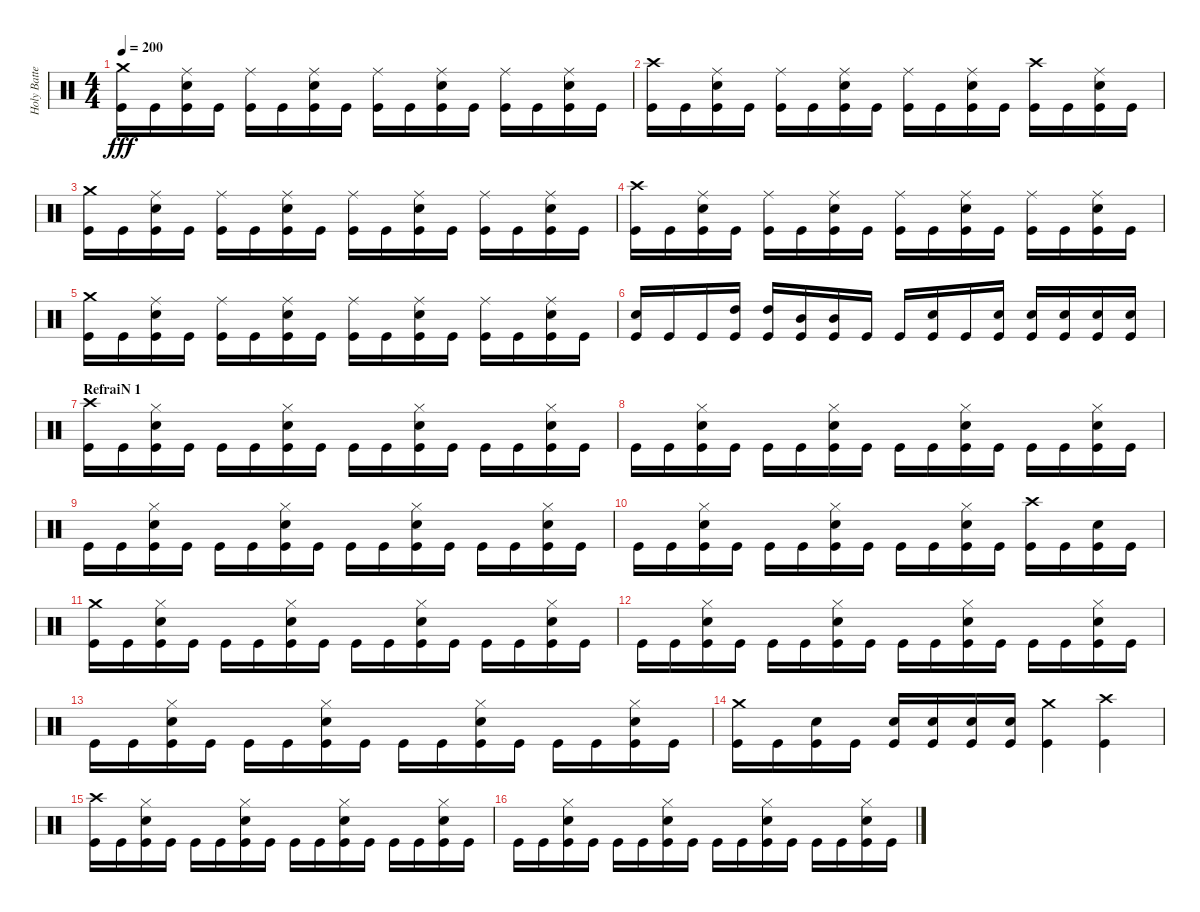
\track ("Holy Batteur" "Holy Batte") {instrument percussion}
\staff {score}
\articulation defaults
\ts (4 4)
\tempo 200
\clef neutral
\ks c
("Crash medium (hit)" "Kick (hit)").16{dy fff} "Kick (hit)".16 ("Ride (middle)" "Electric Snare (hit)" "Kick (hit)").16 "Kick (hit)".16 ("Ride (middle)" "Kick (hit)").16 "Kick (hit)".16 ("Ride (middle)" "Electric Snare (hit)" "Kick (hit)").16 "Kick (hit)".16 ("Ride (middle)" "Kick (hit)").16 "Kick (hit)".16 ("Ride (middle)" "Electric Snare (hit)" "Kick (hit)").16 "Kick (hit)".16 ("Ride (middle)" "Kick (hit)").16 "Kick (hit)".16 ("Ride (middle)" "Electric Snare (hit)" "Kick (hit)").16 "Kick (hit)".16 |
("Crash high (hit)" "Kick (hit)").16 "Kick (hit)".16 ("Ride (middle)" "Electric Snare (hit)" "Kick (hit)").16 "Kick (hit)".16 ("Ride (middle)" "Kick (hit)").16 "Kick (hit)".16 ("Ride (middle)" "Electric Snare (hit)" "Kick (hit)").16 "Kick (hit)".16 ("Ride (middle)" "Kick (hit)").16 "Kick (hit)".16 ("Ride (middle)" "Electric Snare (hit)" "Kick (hit)").16 "Kick (hit)".16 ("Crash high (hit)" "Kick (hit)").16 "Kick (hit)".16 ("Ride (middle)" "Electric Snare (hit)" "Kick (hit)").16 "Kick (hit)".16 |
("Crash medium (hit)" "Kick (hit)").16 "Kick (hit)".16 ("Ride (middle)" "Electric Snare (hit)" "Kick (hit)").16 "Kick (hit)".16 ("Ride (middle)" "Kick (hit)").16 "Kick (hit)".16 ("Ride (middle)" "Electric Snare (hit)" "Kick (hit)").16 "Kick (hit)".16 ("Ride (middle)" "Kick (hit)").16 "Kick (hit)".16 ("Ride (middle)" "Electric Snare (hit)" "Kick (hit)").16 "Kick (hit)".16 ("Ride (middle)" "Kick (hit)").16 "Kick (hit)".16 ("Ride (middle)" "Electric Snare (hit)" "Kick (hit)").16 "Kick (hit)".16 |
("Crash high (hit)" "Kick (hit)").16 "Kick (hit)".16 ("Ride (middle)" "Electric Snare (hit)" "Kick (hit)").16 "Kick (hit)".16 ("Ride (middle)" "Kick (hit)").16 "Kick (hit)".16 ("Ride (middle)" "Electric Snare (hit)" "Kick (hit)").16 "Kick (hit)".16 ("Ride (middle)" "Kick (hit)").16 "Kick (hit)".16 ("Ride (middle)" "Electric Snare (hit)" "Kick (hit)").16 "Kick (hit)".16 ("Ride (middle)" "Kick (hit)").16 "Kick (hit)".16 ("Ride (middle)" "Electric Snare (hit)" "Kick (hit)").16 "Kick (hit)".16 |
("Crash medium (hit)" "Kick (hit)").16 "Kick (hit)".16 ("Ride (middle)" "Electric Snare (hit)" "Kick (hit)").16 "Kick (hit)".16 ("Ride (middle)" "Kick (hit)").16 "Kick (hit)".16 ("Ride (middle)" "Electric Snare (hit)" "Kick (hit)").16 "Kick (hit)".16 ("Ride (middle)" "Kick (hit)").16 "Kick (hit)".16 ("Ride (middle)" "Electric Snare (hit)" "Kick (hit)").16 "Kick (hit)".16 ("Ride (middle)" "Kick (hit)").16 "Kick (hit)".16 ("Ride (middle)" "Electric Snare (hit)" "Kick (hit)").16 "Kick (hit)".16 |
("Electric Snare (hit)" "Kick (hit)").16 "Kick (hit)".16 "Kick (hit)".16 ("High Tom (hit)" "Kick (hit)").16 ("High Tom (hit)" "Kick (hit)").16 ("Mid Tom (hit)" "Kick (hit)").16 ("Mid Tom (hit)" "Kick (hit)").16 "Kick (hit)".16 "Kick (hit)".16 ("Electric Snare (hit)" "Kick (hit)").16 "Kick (hit)".16 ("Electric Snare (hit)" "Kick (hit)").16 ("Electric Snare (hit)" "Kick (hit)").16 ("Electric Snare (hit)" "Kick (hit)").16 ("Electric Snare (hit)" "Kick (hit)").16 ("Electric Snare (hit)" "Kick (hit)").16 |
\section ("" "RefraiN 1")
("Crash high (hit)" "Kick (hit)").16 "Kick (hit)".16 ("Hi-Hat (closed)" "Electric Snare (hit)" "Kick (hit)").16 "Kick (hit)".16 "Kick (hit)".16 "Kick (hit)".16 ("Hi-Hat (closed)" "Electric Snare (hit)" "Kick (hit)").16 "Kick (hit)".16 "Kick (hit)".16 "Kick (hit)".16 ("Hi-Hat (closed)" "Electric Snare (hit)" "Kick (hit)").16 "Kick (hit)".16 "Kick (hit)".16 "Kick (hit)".16 ("Hi-Hat (closed)" "Electric Snare (hit)" "Kick (hit)").16 "Kick (hit)".16 |
"Kick (hit)".16 "Kick (hit)".16 ("Hi-Hat (closed)" "Electric Snare (hit)" "Kick (hit)").16 "Kick (hit)".16 "Kick (hit)".16 "Kick (hit)".16 ("Hi-Hat (closed)" "Electric Snare (hit)" "Kick (hit)").16 "Kick (hit)".16 "Kick (hit)".16 "Kick (hit)".16 ("Hi-Hat (closed)" "Electric Snare (hit)" "Kick (hit)").16 "Kick (hit)".16 "Kick (hit)".16 "Kick (hit)".16 ("Hi-Hat (closed)" "Electric Snare (hit)" "Kick (hit)").16 "Kick (hit)".16 |
"Kick (hit)".16 "Kick (hit)".16 ("Hi-Hat (closed)" "Electric Snare (hit)" "Kick (hit)").16 "Kick (hit)".16 "Kick (hit)".16 "Kick (hit)".16 ("Hi-Hat (closed)" "Electric Snare (hit)" "Kick (hit)").16 "Kick (hit)".16 "Kick (hit)".16 "Kick (hit)".16 ("Hi-Hat (closed)" "Electric Snare (hit)" "Kick (hit)").16 "Kick (hit)".16 "Kick (hit)".16 "Kick (hit)".16 ("Hi-Hat (closed)" "Electric Snare (hit)" "Kick (hit)").16 "Kick (hit)".16 |
"Kick (hit)".16 "Kick (hit)".16 ("Hi-Hat (closed)" "Electric Snare (hit)" "Kick (hit)").16 "Kick (hit)".16 "Kick (hit)".16 "Kick (hit)".16 ("Hi-Hat (closed)" "Electric Snare (hit)" "Kick (hit)").16 "Kick (hit)".16 "Kick (hit)".16 "Kick (hit)".16 ("Hi-Hat (closed)" "Electric Snare (hit)" "Kick (hit)").16 "Kick (hit)".16 ("Crash high (hit)" "Kick (hit)").16 "Kick (hit)".16 ("Electric Snare (hit)" "Kick (hit)").16 "Kick (hit)".16 |
("Crash medium (hit)" "Kick (hit)").16 "Kick (hit)".16 ("Hi-Hat (closed)" "Electric Snare (hit)" "Kick (hit)").16 "Kick (hit)".16 "Kick (hit)".16 "Kick (hit)".16 ("Hi-Hat (closed)" "Electric Snare (hit)" "Kick (hit)").16 "Kick (hit)".16 "Kick (hit)".16 "Kick (hit)".16 ("Hi-Hat (closed)" "Electric Snare (hit)" "Kick (hit)").16 "Kick (hit)".16 "Kick (hit)".16 "Kick (hit)".16 ("Hi-Hat (closed)" "Electric Snare (hit)" "Kick (hit)").16 "Kick (hit)".16 |
"Kick (hit)".16 "Kick (hit)".16 ("Hi-Hat (closed)" "Electric Snare (hit)" "Kick (hit)").16 "Kick (hit)".16 "Kick (hit)".16 "Kick (hit)".16 ("Hi-Hat (closed)" "Electric Snare (hit)" "Kick (hit)").16 "Kick (hit)".16 "Kick (hit)".16 "Kick (hit)".16 ("Hi-Hat (closed)" "Electric Snare (hit)" "Kick (hit)").16 "Kick (hit)".16 "Kick (hit)".16 "Kick (hit)".16 ("Hi-Hat (closed)" "Electric Snare (hit)" "Kick (hit)").16 "Kick (hit)".16 |
"Kick (hit)".16 "Kick (hit)".16 ("Hi-Hat (closed)" "Electric Snare (hit)" "Kick (hit)").16 "Kick (hit)".16 "Kick (hit)".16 "Kick (hit)".16 ("Hi-Hat (closed)" "Electric Snare (hit)" "Kick (hit)").16 "Kick (hit)".16 "Kick (hit)".16 "Kick (hit)".16 ("Hi-Hat (closed)" "Electric Snare (hit)" "Kick (hit)").16 "Kick (hit)".16 "Kick (hit)".16 "Kick (hit)".16 ("Hi-Hat (closed)" "Electric Snare (hit)" "Kick (hit)").16 "Kick (hit)".16 |
("Crash medium (hit)" "Kick (hit)").16 "Kick (hit)".16 ("Electric Snare (hit)" "Kick (hit)").16 "Kick (hit)".16 ("Electric Snare (hit)" "Kick (hit)").16 ("Electric Snare (hit)" "Kick (hit)").16 ("Electric Snare (hit)" "Kick (hit)").16 ("Electric Snare (hit)" "Kick (hit)").16 ("Crash medium (hit)" "Kick (hit)").4 ("Crash high (hit)" "Kick (hit)").4 |
("Crash high (hit)" "Kick (hit)").16 "Kick (hit)".16 ("Hi-Hat (closed)" "Electric Snare (hit)" "Kick (hit)").16 "Kick (hit)".16 "Kick (hit)".16 "Kick (hit)".16 ("Hi-Hat (closed)" "Electric Snare (hit)" "Kick (hit)").16 "Kick (hit)".16 "Kick (hit)".16 "Kick (hit)".16 ("Hi-Hat (closed)" "Electric Snare (hit)" "Kick (hit)").16 "Kick (hit)".16 "Kick (hit)".16 "Kick (hit)".16 ("Hi-Hat (closed)" "Electric Snare (hit)" "Kick (hit)").16 "Kick (hit)".16 |
"Kick (hit)".16 "Kick (hit)".16 ("Hi-Hat (closed)" "Electric Snare (hit)" "Kick (hit)").16 "Kick (hit)".16 "Kick (hit)".16 "Kick (hit)".16 ("Hi-Hat (closed)" "Electric Snare (hit)" "Kick (hit)").16 "Kick (hit)".16 "Kick (hit)".16 "Kick (hit)".16 ("Hi-Hat (closed)" "Electric Snare (hit)" "Kick (hit)").16 "Kick (hit)".16 "Kick (hit)".16 "Kick (hit)".16 ("Hi-Hat (closed)" "Electric Snare (hit)" "Kick (hit)").16 "Kick (hit)".16
